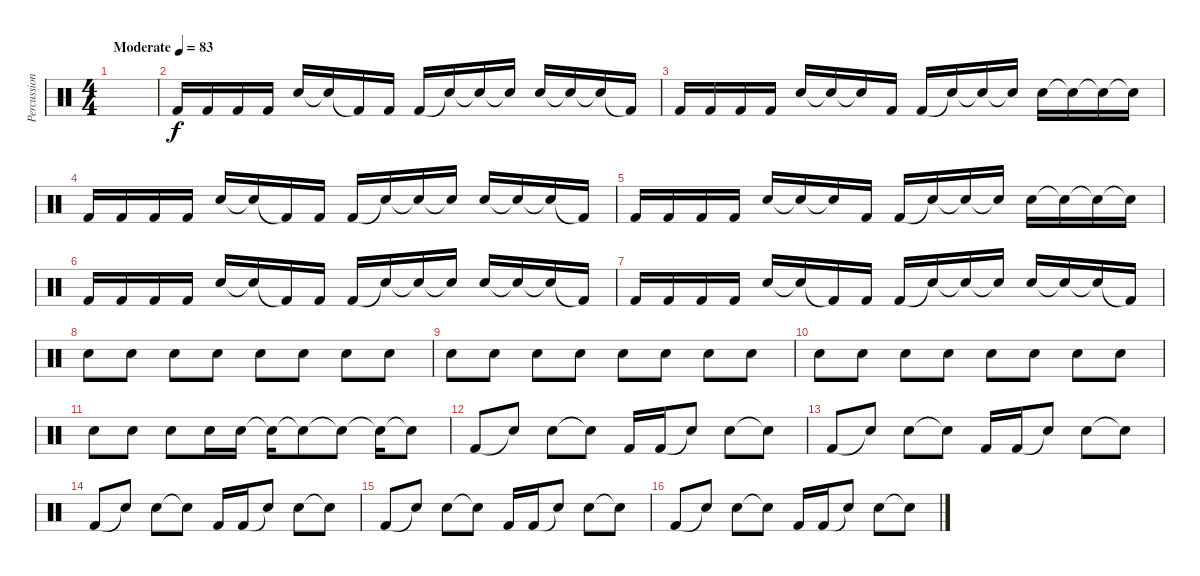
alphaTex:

\track ("Percussion" "Percussion") {instrument percussion}
\staff {score}
\articulation defaults
\ts (4 4)
\tempo (83 "Moderate")
\clef neutral
\ks c
|
"Kick (hit) 2".16 "Kick (hit) 2".16 "Kick (hit) 2".16 "Kick (hit) 2".16 "Snare (hit) 2".16 "Snare (hit)"{t}.16 "Kick (hit) 2"{t}.16 "Kick (hit) 2".16 "Kick (hit) 2".16 "Snare (hit)"{t}.16 "Snare (hit)"{t}.16 "Snare (hit)"{t}.16 "Snare (hit) 2".16 "Snare (hit)"{t}.16 "Snare (hit)"{t}.16 "Kick (hit) 2"{t}.16 |
"Kick (hit) 2".16 "Kick (hit) 2".16 "Kick (hit) 2".16 "Kick (hit) 2".16 "Snare (hit) 2".16 "Snare (hit)"{t}.16 "Snare (hit)"{t}.16 "Kick (hit) 2".16 "Kick (hit) 2".16 "Snare (hit)"{t}.16 "Snare (hit)"{t}.16 "Snare (hit) 2"{t}.16 "Snare (hit) 2".16 "Snare (hit)"{t}.16 "Snare (hit)"{t}.16 "Snare (hit)"{t}.16 |
"Kick (hit) 2".16 "Kick (hit) 2".16 "Kick (hit) 2".16 "Kick (hit) 2".16 "Snare (hit) 2".16 "Snare (hit)"{t}.16 "Kick (hit) 2"{t}.16 "Kick (hit) 2".16 "Kick (hit) 2".16 "Snare (hit)"{t}.16 "Snare (hit)"{t}.16 "Snare (hit)"{t}.16 "Snare (hit) 2".16 "Snare (hit)"{t}.16 "Snare (hit)"{t}.16 "Kick (hit) 2"{t}.16 |
"Kick (hit) 2".16 "Kick (hit) 2".16 "Kick (hit) 2".16 "Kick (hit) 2".16 "Snare (hit) 2".16 "Snare (hit)"{t}.16 "Snare (hit)"{t}.16 "Kick (hit) 2".16 "Kick (hit) 2".16 "Snare (hit)"{t}.16 "Snare (hit)"{t}.16 "Snare (hit) 2"{t}.16 "Snare (hit) 2".16 "Snare (hit)"{t}.16 "Snare (hit)"{t}.16 "Snare (hit)"{t}.16 |
"Kick (hit) 2".16 "Kick (hit) 2".16 "Kick (hit) 2".16 "Kick (hit) 2".16 "Snare (hit) 2".16 "Snare (hit)"{t}.16 "Kick (hit) 2"{t}.16 "Kick (hit) 2".16 "Kick (hit) 2".16 "Snare (hit)"{t}.16 "Snare (hit)"{t}.16 "Snare (hit)"{t}.16 "Snare (hit) 2".16 "Snare (hit)"{t}.16 "Snare (hit)"{t}.16 "Kick (hit) 2"{t}.16 |
"Kick (hit) 2".16 "Kick (hit) 2".16 "Kick (hit) 2".16 "Kick (hit) 2".16 "Snare (hit) 2".16 "Snare (hit)"{t}.16 "Kick (hit) 2"{t}.16 "Kick (hit) 2".16 "Kick (hit) 2".16 "Snare (hit)"{t}.16 "Snare (hit)"{t}.16 "Snare (hit)"{t}.16 "Snare (hit) 2".16 "Snare (hit)"{t}.16 "Snare (hit)"{t}.16 "Kick (hit) 2"{t}.16 |
"Electric Snare (hit)".8 "Electric Snare (hit)".8 "Electric Snare (hit)".8 "Electric Snare (hit)".8 "Electric Snare (hit)".8 "Electric Snare (hit)".8 "Electric Snare (hit)".8 "Electric Snare (hit)".8 |
"Electric Snare (hit)".8 "Electric Snare (hit)".8 "Electric Snare (hit)".8 "Electric Snare (hit)".8 "Electric Snare (hit)".8 "Electric Snare (hit)".8 "Electric Snare (hit)".8 "Electric Snare (hit)".8 |
"Electric Snare (hit)".8 "Electric Snare (hit)".8 "Electric Snare (hit)".8 "Electric Snare (hit)".8 "Electric Snare (hit)".8 "Electric Snare (hit)".8 "Electric Snare (hit)".8 "Electric Snare (hit)".8 |
"Electric Snare (hit)".8 "Electric Snare (hit)".8 "Electric Snare (hit)".8 "Electric Snare (hit)".16 "Snare (hit) 2".16 "Snare (hit) 2"{t}.16 "Snare (hit)"{t}.8 "Snare (hit)"{t}.8 "Snare (hit)"{t}.16 "Snare (hit)"{t}.8 |
"Kick (hit) 2".8 "Snare (hit)"{t}.8 "Snare (hit) 2".8 "Snare (hit)"{t}.8 "Kick (hit) 2".16 "Kick (hit) 2".16 "Snare (hit)"{t}.8 "Snare (hit) 2".8 "Snare (hit)"{t}.8 |
"Kick (hit) 2".8 "Snare (hit)"{t}.8 "Snare (hit) 2".8 "Snare (hit)"{t}.8 "Kick (hit) 2".16 "Kick (hit) 2".16 "Snare (hit)"{t}.8 "Snare (hit) 2".8 "Snare (hit)"{t}.8 |
"Kick (hit) 2".8 "Snare (hit)"{t}.8 "Snare (hit) 2".8 "Snare (hit)"{t}.8 "Kick (hit) 2".16 "Kick (hit) 2".16 "Snare (hit)"{t}.8 "Snare (hit) 2".8 "Snare (hit)"{t}.8 |
"Kick (hit) 2".8 "Snare (hit)"{t}.8 "Snare (hit) 2".8 "Snare (hit)"{t}.8 "Kick (hit) 2".16 "Kick (hit) 2".16 "Snare (hit)"{t}.8 "Snare (hit) 2".8 "Snare (hit)"{t}.8 |
"Kick (hit) 2".8 "Snare (hit)"{t}.8 "Snare (hit) 2".8 "Snare (hit)"{t}.8 "Kick (hit) 2".16 "Kick (hit) 2".16 "Snare (hit)"{t}.8 "Snare (hit) 2".8 "Snare (hit)"{t}.8
